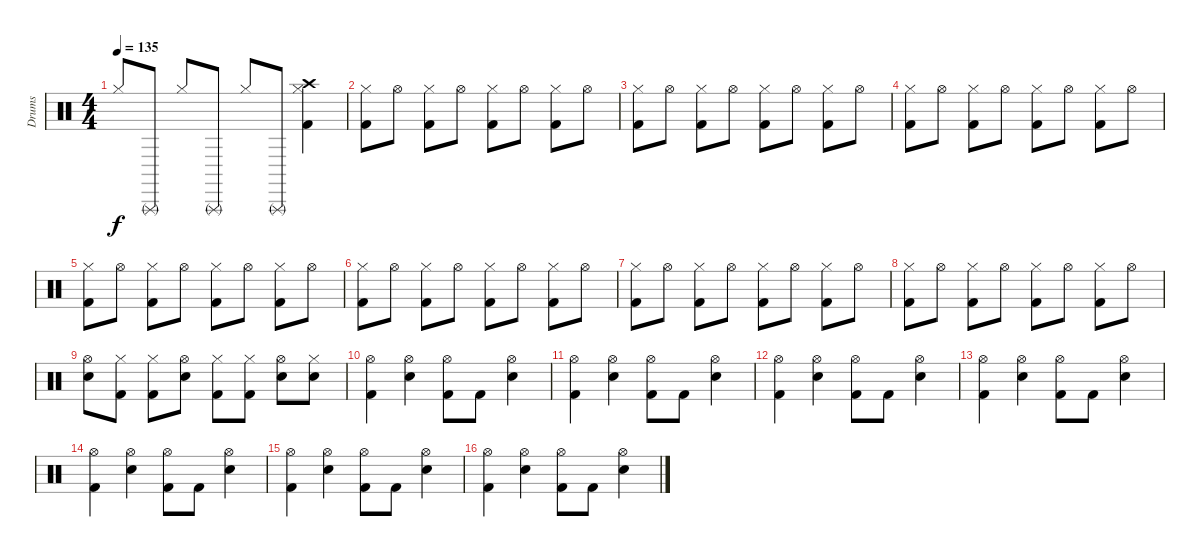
\track ("Drums" "Drums") {instrument percussion}
\staff {score}
\articulation defaults
\ts (4 4)
\tempo 135
\clef neutral
\ks c "Hi-Hat (closed)".8{dy f} "Triangle (rnute)".8 "Hi-Hat (closed)".8 "Triangle (rnute)".8 "Hi-Hat (closed)".8 "Triangle (rnute)".8
("Crash high (hit)" "Hi-Hat (closed)" "Kick (hit) 2").4 |
("Hi-Hat (closed)" "Kick (hit) 2").8 "Hi-Hat (open)".8 ("Hi-Hat (closed)" "Kick (hit) 2").8 "Hi-Hat (open)".8 ("Hi-Hat (closed)" "Kick (hit) 2").8 "Hi-Hat (open)".8 ("Hi-Hat (closed)" "Kick (hit) 2").8 "Hi-Hat (open)".8 |
("Hi-Hat (closed)" "Kick (hit) 2").8 "Hi-Hat (open)".8 ("Hi-Hat (closed)" "Kick (hit) 2").8 "Hi-Hat (open)".8 ("Hi-Hat (closed)" "Kick (hit) 2").8 "Hi-Hat (open)".8 ("Hi-Hat (closed)" "Kick (hit) 2").8 "Hi-Hat (open)".8 |
("Hi-Hat (closed)" "Kick (hit) 2").8 "Hi-Hat (open)".8 ("Hi-Hat (closed)" "Kick (hit) 2").8 "Hi-Hat (open)".8 ("Hi-Hat (closed)" "Kick (hit) 2").8 "Hi-Hat (open)".8 ("Hi-Hat (closed)" "Kick (hit) 2").8 "Hi-Hat (open)".8 |
("Hi-Hat (closed)" "Kick (hit) 2").8 "Hi-Hat (open)".8 ("Hi-Hat (closed)" "Kick (hit) 2").8 "Hi-Hat (open)".8 ("Hi-Hat (closed)" "Kick (hit) 2").8 "Hi-Hat (open)".8 ("Hi-Hat (closed)" "Kick (hit) 2").8 "Hi-Hat (open)".8 |
("Hi-Hat (closed)" "Kick (hit) 2").8 "Hi-Hat (open)".8 ("Hi-Hat (closed)" "Kick (hit) 2").8 "Hi-Hat (open)".8 ("Hi-Hat (closed)" "Kick (hit) 2").8 "Hi-Hat (open)".8 ("Hi-Hat (closed)" "Kick (hit) 2").8 "Hi-Hat (open)".8 |
("Hi-Hat (closed)" "Kick (hit) 2").8 "Hi-Hat (open)".8 ("Hi-Hat (closed)" "Kick (hit) 2").8 "Hi-Hat (open)".8 ("Hi-Hat (closed)" "Kick (hit) 2").8 "Hi-Hat (open)".8 ("Hi-Hat (closed)" "Kick (hit) 2").8 "Hi-Hat (open)".8 |
("Hi-Hat (closed)" "Kick (hit) 2").8 "Hi-Hat (open)".8 ("Hi-Hat (closed)" "Kick (hit) 2").8 "Hi-Hat (open)".8 ("Hi-Hat (closed)" "Kick (hit) 2").8 "Hi-Hat (open)".8 ("Hi-Hat (closed)" "Kick (hit) 2").8 "Hi-Hat (open)".8 |
("Hi-Hat (open)" "Electric Snare (hit)").8 ("Hi-Hat (closed)" "Kick (hit) 2").8 ("Hi-Hat (closed)" "Kick (hit) 2").8 ("Hi-Hat (open)" "Electric Snare (hit)").8 ("Hi-Hat (closed)" "Kick (hit) 2").8 ("Hi-Hat (closed)" "Kick (hit) 2").8 ("Hi-Hat (open)" "Electric Snare (hit)").8 ("Hi-Hat (closed)" "Snare (hit)").8 |
("Hi-Hat (open)" "Kick (hit) 2").4 ("Hi-Hat (open)" "Electric Snare (hit)").4 ("Hi-Hat (open)" "Kick (hit) 2").8 "Kick (hit) 2".8 ("Hi-Hat (open)" "Electric Snare (hit)").4 |
("Hi-Hat (open)" "Kick (hit) 2").4 ("Hi-Hat (open)" "Electric Snare (hit)").4 ("Hi-Hat (open)" "Kick (hit) 2").8 "Kick (hit) 2".8 ("Hi-Hat (open)" "Electric Snare (hit)").4 |
("Hi-Hat (open)" "Kick (hit) 2").4 ("Hi-Hat (open)" "Electric Snare (hit)").4 ("Hi-Hat (open)" "Kick (hit) 2").8 "Kick (hit) 2".8 ("Hi-Hat (open)" "Electric Snare (hit)").4 |
("Hi-Hat (open)" "Kick (hit) 2").4 ("Hi-Hat (open)" "Electric Snare (hit)").4 ("Hi-Hat (open)" "Kick (hit) 2").8 "Kick (hit) 2".8 ("Hi-Hat (open)" "Electric Snare (hit)").4 |
("Hi-Hat (open)" "Kick (hit) 2").4 ("Hi-Hat (open)" "Electric Snare (hit)").4 ("Hi-Hat (open)" "Kick (hit) 2").8 "Kick (hit) 2".8 ("Hi-Hat (open)" "Electric Snare (hit)").4 |
("Hi-Hat (open)" "Kick (hit) 2").4 ("Hi-Hat (open)" "Electric Snare (hit)").4 ("Hi-Hat (open)" "Kick (hit) 2").8 "Kick (hit) 2".8 ("Hi-Hat (open)" "Electric Snare (hit)").4 |
("Hi-Hat (open)" "Kick (hit) 2").4 ("Hi-Hat (open)" "Electric Snare (hit)").4 ("Hi-Hat (open)" "Kick (hit) 2").8 "Kick (hit) 2".8 ("Hi-Hat (open)" "Electric Snare (hit)").4
